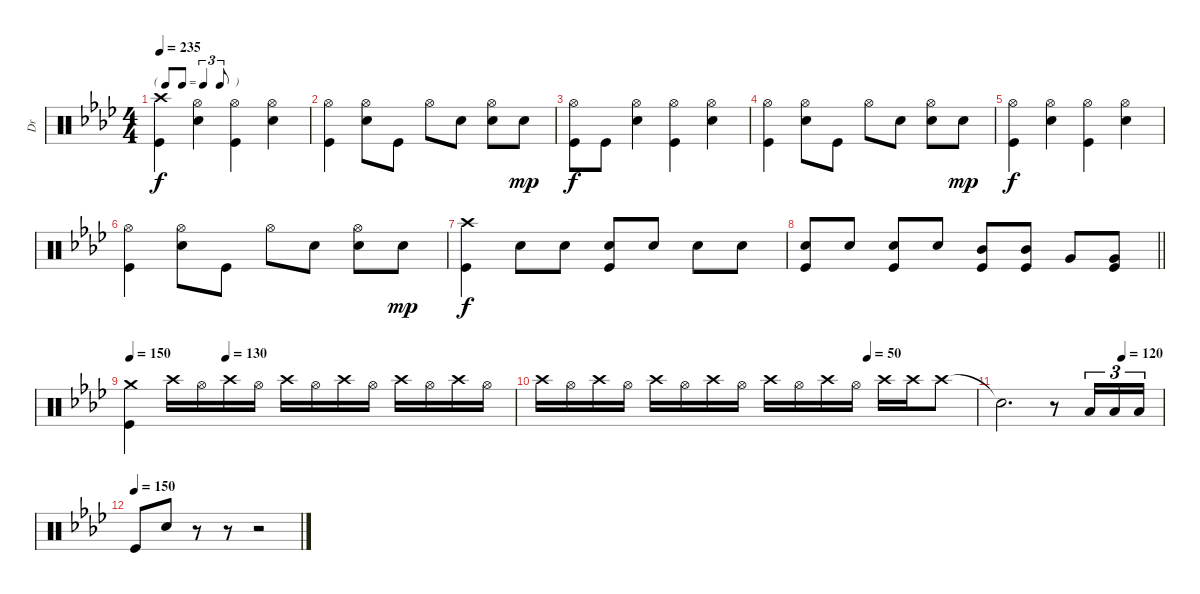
\track ("Dr" "Dr") {instrument percussion}
\staff {score}
\articulation defaults
\ts (4 4)
\tf triplet8th
\tempo 235
\clef neutral
\ks ab
("Crash high (hit)" "Kick (hit)").4{dy f} ("Hi-Hat (open)" "Electric Snare (hit)").4 ("Hi-Hat (open)" "Kick (hit)").4 ("Hi-Hat (open)" "Electric Snare (hit)").4 |
("Hi-Hat (open)" "Kick (hit)").4 ("Hi-Hat (open)" "Electric Snare (hit)").8 "Kick (hit)".8 "Hi-Hat (open)".8 "Electric Snare (hit)".8 ("Hi-Hat (open)" "Electric Snare (hit)").8 "Electric Snare (hit)".8{dy mp} |
("Hi-Hat (open)" "Kick (hit)").8{dy f} "Kick (hit)".8 ("Hi-Hat (open)" "Electric Snare (hit)").4 ("Hi-Hat (open)" "Kick (hit)").4 ("Hi-Hat (open)" "Electric Snare (hit)").4 |
("Hi-Hat (open)" "Kick (hit)").4 ("Hi-Hat (open)" "Electric Snare (hit)").8 "Kick (hit)".8 "Hi-Hat (open)".8 "Electric Snare (hit)".8 ("Hi-Hat (open)" "Electric Snare (hit)").8 "Electric Snare (hit)".8{dy mp} |
("Hi-Hat (open)" "Kick (hit)").4{dy f} ("Hi-Hat (open)" "Electric Snare (hit)").4 ("Hi-Hat (open)" "Kick (hit)").4 ("Hi-Hat (open)" "Electric Snare (hit)").4 |
("Hi-Hat (open)" "Kick (hit)").4 ("Hi-Hat (open)" "Electric Snare (hit)").8 "Kick (hit)".8 "Hi-Hat (open)".8 "Electric Snare (hit)".8 ("Hi-Hat (open)" "Electric Snare (hit)").8 "Electric Snare (hit)".8{dy mp} |
("Crash high (hit)" "Kick (hit)").4{dy f} "Electric Snare (hit)".8 "Electric Snare (hit)".8 ("Electric Snare (hit)" "Kick (hit)").8 "Electric Snare (hit)".8 "Electric Snare (hit)".8 "Electric Snare (hit)".8 |
\barLineRight lightlight
("Electric Snare (hit)" "Kick (hit)").8 "Electric Snare (hit)".8 ("Electric Snare (hit)" "Kick (hit)").8 "Electric Snare (hit)".8 ("Mid Tom (hit)" "Kick (hit)").8 ("Mid Tom (hit)" "Kick (hit)").8 "Very Low Tom (hit)".8 ("Very Low Tom (hit)" "Kick (hit)").8 |
\tempo 150
\tempo (130 0.25)
("Crash medium (hit)" "Kick (hit)").4 "Crash high (hit)".16 "Hi-Hat (open)".16 "Crash high (hit)".16 "Hi-Hat (open)".16 "Crash high (hit)".16 "Hi-Hat (open)".16 "Crash high (hit)".16 "Hi-Hat (open)".16 "Crash high (hit)".16 "Hi-Hat (open)".16 "Crash high (hit)".16 "Hi-Hat (open)".16 |
\tempo (50 0.75)
"Crash high (hit)".16 "Hi-Hat (open)".16 "Crash high (hit)".16 "Hi-Hat (open)".16 "Crash high (hit)".16 "Hi-Hat (open)".16 "Crash high (hit)".16 "Hi-Hat (open)".16 "Crash high (hit)".16 "Hi-Hat (open)".16 "Crash high (hit)".16 "Hi-Hat (open)".16 "Crash high (hit)".16 "Crash high (hit)".16 "Crash high (hit)".8 |
\tempo (120 0.75)
"Snare (hit)"{t}.2{d} r.8 "Low Floor Tom (hit)".16{tu (3 2)} "Low Floor Tom (hit)".16{tu (3 2)} "Low Floor Tom (hit)".16{tu (3 2)} |
\tempo (150)
"Kick (hit)".8 "Electric Snare (hit)".8 r.8 r.8 r.2
